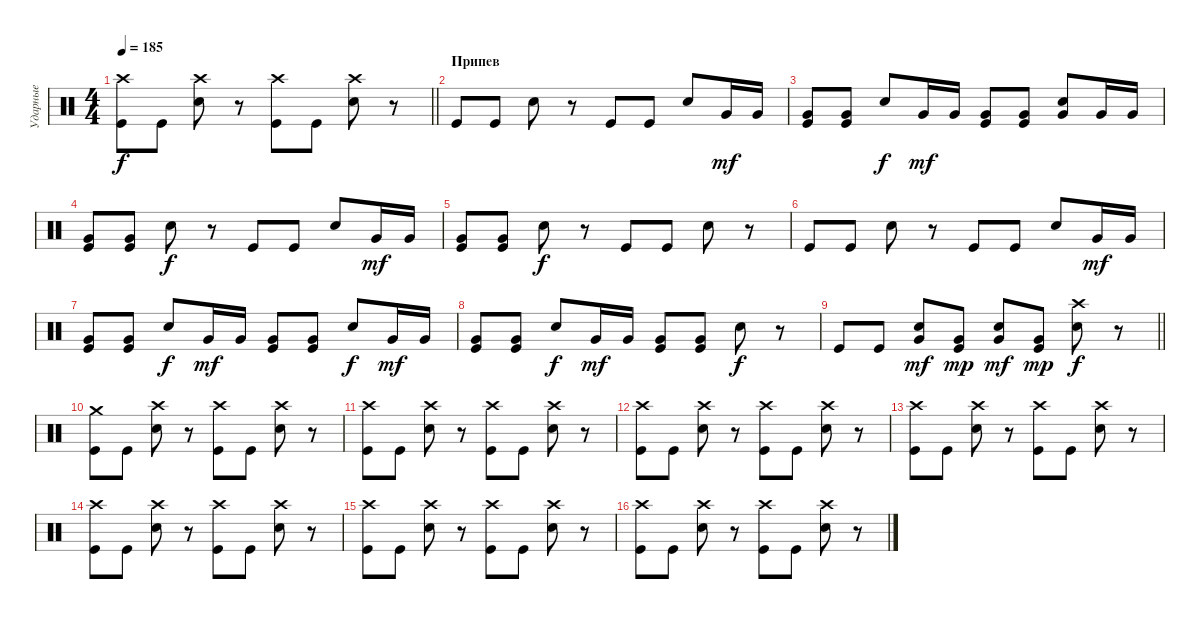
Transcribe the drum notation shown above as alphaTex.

\track ("Ударные" "Ударные") {instrument percussion}
\staff {score}
\articulation defaults
\ts (4 4)
\tempo 185
\clef neutral
\barLineRight lightlight
\ks c
("Crash high (hit)" "Kick (hit)").8{dy f} "Kick (hit)".8 ("Crash high (hit)" "Electric Snare (hit)").8 r.8 ("Crash high (hit)" "Kick (hit)").8 "Kick (hit)".8 ("Crash high (hit)" "Electric Snare (hit)").8 r.8 |
\section ("" "Припев")
"Kick (hit)".8 "Kick (hit)".8 "Electric Snare (hit)".8 r.8 "Kick (hit)".8 "Kick (hit)".8 "Electric Snare (hit)".8 "Very Low Tom (hit)".16{dy mf} "Very Low Tom (hit)".16 |
("Very Low Tom (hit)" "Kick (hit)").8 ("Very Low Tom (hit)" "Kick (hit)").8 "Electric Snare (hit)".8{dy f} "Very Low Tom (hit)".16{dy mf} "Very Low Tom (hit)".16 ("Very Low Tom (hit)" "Kick (hit)").8 ("Very Low Tom (hit)" "Kick (hit)").8 ("Very Low Tom (hit)" "Electric Snare (hit)").8 "Very Low Tom (hit)".16 "Very Low Tom (hit)".16 |
("Very Low Tom (hit)" "Kick (hit)").8 ("Very Low Tom (hit)" "Kick (hit)").8 "Electric Snare (hit)".8{dy f} r.8 "Kick (hit)".8 "Kick (hit)".8 "Electric Snare (hit)".8 "Very Low Tom (hit)".16{dy mf} "Very Low Tom (hit)".16 |
("Very Low Tom (hit)" "Kick (hit)").8 ("Very Low Tom (hit)" "Kick (hit)").8 "Electric Snare (hit)".8{dy f} r.8 "Kick (hit)".8 "Kick (hit)".8 "Electric Snare (hit)".8 r.8 |
"Kick (hit)".8 "Kick (hit)".8 "Electric Snare (hit)".8 r.8 "Kick (hit)".8 "Kick (hit)".8 "Electric Snare (hit)".8 "Very Low Tom (hit)".16{dy mf} "Very Low Tom (hit)".16 |
("Very Low Tom (hit)" "Kick (hit)").8 ("Very Low Tom (hit)" "Kick (hit)").8 "Electric Snare (hit)".8{dy f} "Very Low Tom (hit)".16{dy mf} "Very Low Tom (hit)".16 ("Very Low Tom (hit)" "Kick (hit)").8 ("Very Low Tom (hit)" "Kick (hit)").8 "Electric Snare (hit)".8{dy f} "Very Low Tom (hit)".16{dy mf} "Very Low Tom (hit)".16 |
("Very Low Tom (hit)" "Kick (hit)").8 ("Very Low Tom (hit)" "Kick (hit)").8 "Electric Snare (hit)".8{dy f} "Very Low Tom (hit)".16{dy mf} "Very Low Tom (hit)".16 ("Very Low Tom (hit)" "Kick (hit)").8 ("Very Low Tom (hit)" "Kick (hit)").8 "Electric Snare (hit)".8{dy f} r.8 |
\barLineRight lightlight "Kick (hit)".8 "Kick (hit)".8
("Very Low Tom (hit)" "Electric Snare (hit)").8{dy mf} ("Very Low Tom (hit)" "Kick (hit)").8{dy mp} ("Very Low Tom (hit)" "Electric Snare (hit)").8{dy mf} ("Very Low Tom (hit)" "Kick (hit)").8{dy mp} ("Crash high (hit)" "Electric Snare (hit)").8{dy f} r.8 |
\section ("" " ")
("Crash medium (hit)" "Kick (hit)").8 "Kick (hit)".8 ("Crash high (hit)" "Electric Snare (hit)").8 r.8 ("Crash high (hit)" "Kick (hit)").8 "Kick (hit)".8 ("Crash high (hit)" "Electric Snare (hit)").8 r.8 |
("Crash high (hit)" "Kick (hit)").8 "Kick (hit)".8 ("Crash high (hit)" "Electric Snare (hit)").8 r.8 ("Crash high (hit)" "Kick (hit)").8 "Kick (hit)".8 ("Crash high (hit)" "Electric Snare (hit)").8 r.8 |
("Crash high (hit)" "Kick (hit)").8 "Kick (hit)".8 ("Crash high (hit)" "Electric Snare (hit)").8 r.8 ("Crash high (hit)" "Kick (hit)").8 "Kick (hit)".8 ("Crash high (hit)" "Electric Snare (hit)").8 r.8 |
("Crash high (hit)" "Kick (hit)").8 "Kick (hit)".8 ("Crash high (hit)" "Electric Snare (hit)").8 r.8 ("Crash high (hit)" "Kick (hit)").8 "Kick (hit)".8 ("Crash high (hit)" "Electric Snare (hit)").8 r.8 |
("Crash high (hit)" "Kick (hit)").8 "Kick (hit)".8 ("Crash high (hit)" "Electric Snare (hit)").8 r.8 ("Crash high (hit)" "Kick (hit)").8 "Kick (hit)".8 ("Crash high (hit)" "Electric Snare (hit)").8 r.8 |
("Crash high (hit)" "Kick (hit)").8 "Kick (hit)".8 ("Crash high (hit)" "Electric Snare (hit)").8 r.8 ("Crash high (hit)" "Kick (hit)").8 "Kick (hit)".8 ("Crash high (hit)" "Electric Snare (hit)").8 r.8 |
("Crash high (hit)" "Kick (hit)").8 "Kick (hit)".8 ("Crash high (hit)" "Electric Snare (hit)").8 r.8 ("Crash high (hit)" "Kick (hit)").8 "Kick (hit)".8 ("Crash high (hit)" "Electric Snare (hit)").8 r.8
